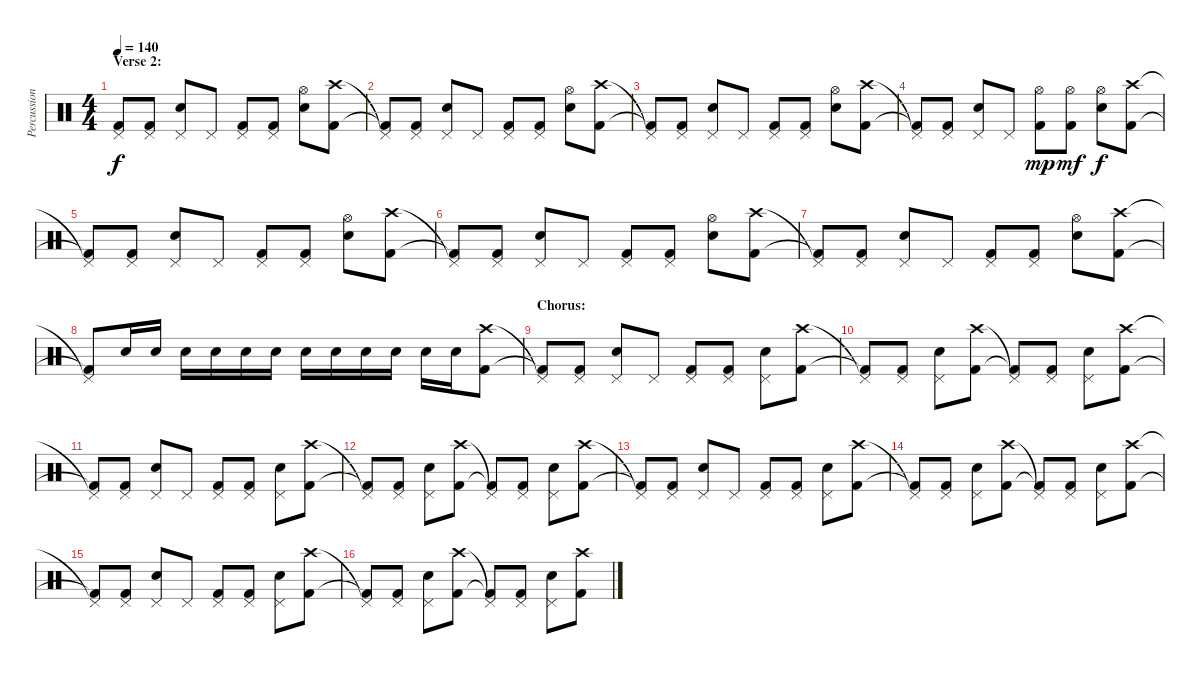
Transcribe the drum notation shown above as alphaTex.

\track ("Percussion" "Percussion") {instrument percussion}
\staff {score}
\articulation defaults
\ts (4 4)
\section ("" "Verse 2:")
\tempo 140
\clef neutral
\ks c
("Pedal Hi-Hat (hit)"{t} "Kick (hit) 2"{t}).8{dy f} ("Pedal Hi-Hat (hit)" "Kick (hit) 2").8 ("Pedal Hi-Hat (hit)" "Snare (hit) 2").8 "Pedal Hi-Hat (hit)".8 ("Pedal Hi-Hat (hit)" "Kick (hit) 2").8 ("Pedal Hi-Hat (hit)" "Kick (hit) 2").8 ("Hi-Hat (open)" "Snare (hit) 2").8 ("Crash high (hit)" "Kick (hit) 2").8 |
("Pedal Hi-Hat (hit)"{t} "Kick (hit) 2"{t}).8 ("Pedal Hi-Hat (hit)" "Kick (hit) 2").8 ("Pedal Hi-Hat (hit)" "Snare (hit) 2").8 "Pedal Hi-Hat (hit)".8 ("Pedal Hi-Hat (hit)" "Kick (hit) 2").8 ("Pedal Hi-Hat (hit)" "Kick (hit) 2").8 ("Hi-Hat (open)" "Snare (hit) 2").8 ("Crash high (hit)" "Kick (hit) 2").8 |
("Pedal Hi-Hat (hit)"{t} "Kick (hit) 2"{t}).8 ("Pedal Hi-Hat (hit)" "Kick (hit) 2").8 ("Pedal Hi-Hat (hit)" "Snare (hit) 2").8 "Pedal Hi-Hat (hit)".8 ("Pedal Hi-Hat (hit)" "Kick (hit) 2").8 ("Pedal Hi-Hat (hit)" "Kick (hit) 2").8 ("Hi-Hat (open)" "Snare (hit) 2").8 ("Crash high (hit)" "Kick (hit) 2").8 |
("Pedal Hi-Hat (hit)"{t} "Kick (hit) 2"{t}).8 ("Pedal Hi-Hat (hit)" "Kick (hit) 2").8 ("Pedal Hi-Hat (hit)" "Snare (hit) 2").8 "Pedal Hi-Hat (hit)".8 ("Hi-Hat (open)" "Kick (hit) 2").8{dy mp} ("Hi-Hat (open)" "Kick (hit) 2").8{dy mf} ("Hi-Hat (open)" "Snare (hit) 2").8{dy f} ("Crash high (hit)" "Kick (hit) 2").8 |
("Pedal Hi-Hat (hit)"{t} "Kick (hit) 2"{t}).8 ("Pedal Hi-Hat (hit)" "Kick (hit) 2").8 ("Pedal Hi-Hat (hit)" "Snare (hit) 2").8 "Pedal Hi-Hat (hit)".8 ("Pedal Hi-Hat (hit)" "Kick (hit) 2").8 ("Pedal Hi-Hat (hit)" "Kick (hit) 2").8 ("Hi-Hat (open)" "Snare (hit) 2").8 ("Crash high (hit)" "Kick (hit) 2").8 |
("Pedal Hi-Hat (hit)"{t} "Kick (hit) 2"{t}).8 ("Pedal Hi-Hat (hit)" "Kick (hit) 2").8 ("Pedal Hi-Hat (hit)" "Snare (hit) 2").8 "Pedal Hi-Hat (hit)".8 ("Pedal Hi-Hat (hit)" "Kick (hit) 2").8 ("Pedal Hi-Hat (hit)" "Kick (hit) 2").8 ("Hi-Hat (open)" "Snare (hit) 2").8 ("Crash high (hit)" "Kick (hit) 2").8 |
("Pedal Hi-Hat (hit)"{t} "Kick (hit) 2"{t}).8 ("Pedal Hi-Hat (hit)" "Kick (hit) 2").8 ("Pedal Hi-Hat (hit)" "Snare (hit) 2").8 "Pedal Hi-Hat (hit)".8 ("Pedal Hi-Hat (hit)" "Kick (hit) 2").8 ("Pedal Hi-Hat (hit)" "Kick (hit) 2").8 ("Hi-Hat (open)" "Snare (hit) 2").8 ("Crash high (hit)" "Kick (hit) 2").8 |
("Pedal Hi-Hat (hit)"{t} "Kick (hit) 2"{t}).8 "Snare (hit) 2".16 "Snare (hit) 2".16 "Snare (hit) 2".16 "Snare (hit) 2".16 "Snare (hit) 2".16 "Snare (hit) 2".16 "Snare (hit) 2".16 "Snare (hit) 2".16 "Snare (hit) 2".16 "Snare (hit) 2".16 "Snare (hit) 2".16 "Snare (hit) 2".16 ("Crash high (hit)" "Kick (hit) 2").8 |
\section ("" "Chorus:")
("Pedal Hi-Hat (hit)"{t} "Kick (hit) 2"{t}).8 ("Pedal Hi-Hat (hit)" "Kick (hit) 2").8 ("Pedal Hi-Hat (hit)" "Snare (hit) 2").8 "Pedal Hi-Hat (hit)".8 ("Pedal Hi-Hat (hit)" "Kick (hit) 2").8 ("Pedal Hi-Hat (hit)" "Kick (hit) 2").8 ("Pedal Hi-Hat (hit)" "Snare (hit) 2").8 ("Crash high (hit)" "Kick (hit) 2").8 |
("Pedal Hi-Hat (hit)"{t} "Kick (hit) 2"{t}).8 ("Pedal Hi-Hat (hit)" "Kick (hit) 2").8 ("Pedal Hi-Hat (hit)" "Snare (hit) 2").8 ("Crash high (hit)" "Kick (hit) 2").8 ("Pedal Hi-Hat (hit)"{t} "Kick (hit) 2"{t}).8 ("Pedal Hi-Hat (hit)" "Kick (hit) 2").8 ("Pedal Hi-Hat (hit)" "Snare (hit) 2").8 ("Crash high (hit)" "Kick (hit) 2").8 |
("Pedal Hi-Hat (hit)"{t} "Kick (hit) 2"{t}).8 ("Pedal Hi-Hat (hit)" "Kick (hit) 2").8 ("Pedal Hi-Hat (hit)" "Snare (hit) 2").8 "Pedal Hi-Hat (hit)".8 ("Pedal Hi-Hat (hit)" "Kick (hit) 2").8 ("Pedal Hi-Hat (hit)" "Kick (hit) 2").8 ("Pedal Hi-Hat (hit)" "Snare (hit) 2").8 ("Crash high (hit)" "Kick (hit) 2").8 |
("Pedal Hi-Hat (hit)"{t} "Kick (hit) 2"{t}).8 ("Pedal Hi-Hat (hit)" "Kick (hit) 2").8 ("Pedal Hi-Hat (hit)" "Snare (hit) 2").8 ("Crash high (hit)" "Kick (hit) 2").8 ("Pedal Hi-Hat (hit)"{t} "Kick (hit) 2"{t}).8 ("Pedal Hi-Hat (hit)" "Kick (hit) 2").8 ("Pedal Hi-Hat (hit)" "Snare (hit) 2").8 ("Crash high (hit)" "Kick (hit) 2").8 |
("Pedal Hi-Hat (hit)"{t} "Kick (hit) 2"{t}).8 ("Pedal Hi-Hat (hit)" "Kick (hit) 2").8 ("Pedal Hi-Hat (hit)" "Snare (hit) 2").8 "Pedal Hi-Hat (hit)".8 ("Pedal Hi-Hat (hit)" "Kick (hit) 2").8 ("Pedal Hi-Hat (hit)" "Kick (hit) 2").8 ("Pedal Hi-Hat (hit)" "Snare (hit) 2").8 ("Crash high (hit)" "Kick (hit) 2").8 |
("Pedal Hi-Hat (hit)"{t} "Kick (hit) 2"{t}).8 ("Pedal Hi-Hat (hit)" "Kick (hit) 2").8 ("Pedal Hi-Hat (hit)" "Snare (hit) 2").8 ("Crash high (hit)" "Kick (hit) 2").8 ("Pedal Hi-Hat (hit)"{t} "Kick (hit) 2"{t}).8 ("Pedal Hi-Hat (hit)" "Kick (hit) 2").8 ("Pedal Hi-Hat (hit)" "Snare (hit) 2").8 ("Crash high (hit)" "Kick (hit) 2").8 |
("Pedal Hi-Hat (hit)"{t} "Kick (hit) 2"{t}).8 ("Pedal Hi-Hat (hit)" "Kick (hit) 2").8 ("Pedal Hi-Hat (hit)" "Snare (hit) 2").8 "Pedal Hi-Hat (hit)".8 ("Pedal Hi-Hat (hit)" "Kick (hit) 2").8 ("Pedal Hi-Hat (hit)" "Kick (hit) 2").8 ("Pedal Hi-Hat (hit)" "Snare (hit) 2").8 ("Crash high (hit)" "Kick (hit) 2").8 |
("Pedal Hi-Hat (hit)"{t} "Kick (hit) 2"{t}).8 ("Pedal Hi-Hat (hit)" "Kick (hit) 2").8 ("Pedal Hi-Hat (hit)" "Snare (hit) 2").8 ("Crash high (hit)" "Kick (hit) 2").8 ("Pedal Hi-Hat (hit)"{t} "Kick (hit) 2"{t}).8 ("Pedal Hi-Hat (hit)" "Kick (hit) 2").8 ("Pedal Hi-Hat (hit)" "Snare (hit) 2").8 ("Crash high (hit)" "Kick (hit) 2").8
